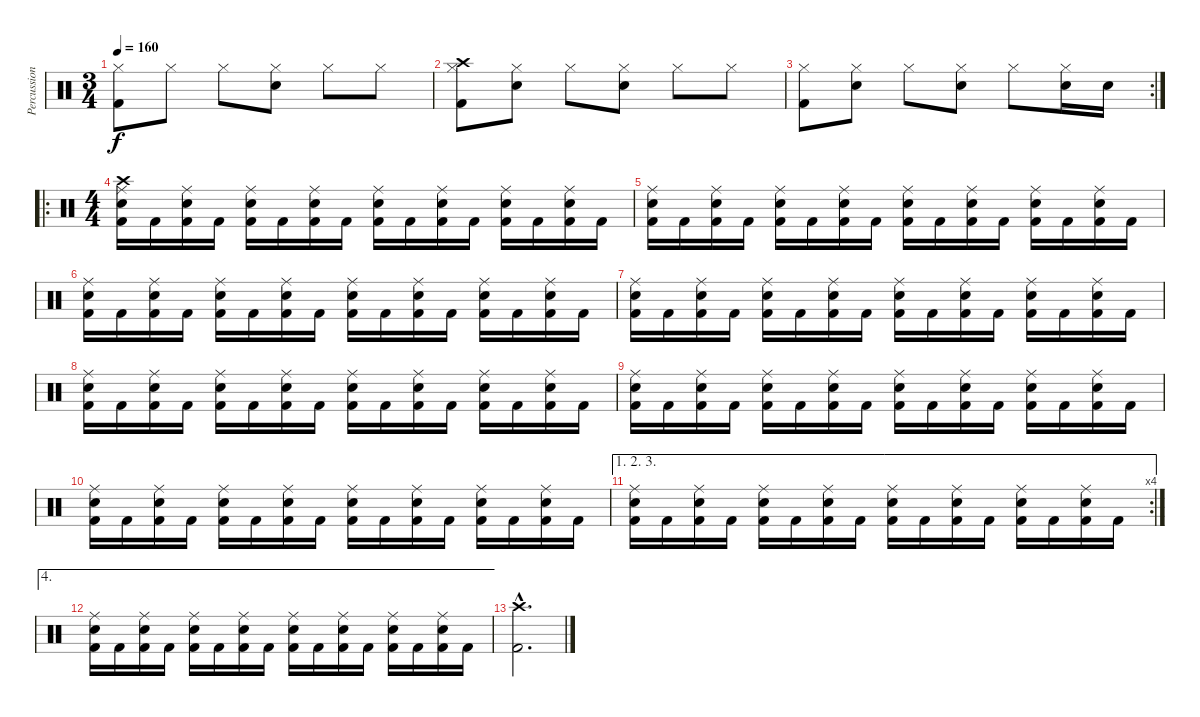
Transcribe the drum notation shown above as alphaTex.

\track ("Percussion" "Percussion") {instrument percussion}
\staff {score}
\articulation defaults
\ts (3 4)
\tempo 160
\clef neutral
\ks c
("Hi-Hat (closed)" "Kick (hit) 2").8{dy f} "Hi-Hat (closed)".8 "Hi-Hat (closed)".8 ("Hi-Hat (closed)" "Snare (hit) 2").8 "Hi-Hat (closed)".8 "Hi-Hat (closed)".8 |
("Hi-Hat (closed)" "Kick (hit) 2" "Crash high (hit)").8 ("Hi-Hat (closed)" "Snare (hit) 2").8 "Hi-Hat (closed)".8 ("Hi-Hat (closed)" "Snare (hit) 2").8 "Hi-Hat (closed)".8 "Hi-Hat (closed)".8 |
\rc 2
("Hi-Hat (closed)" "Kick (hit) 2").8 ("Hi-Hat (closed)" "Snare (hit) 2").8 "Hi-Hat (closed)".8 ("Hi-Hat (closed)" "Snare (hit) 2").8 "Hi-Hat (closed)".8 ("Hi-Hat (closed)" "Snare (hit) 2").16 "Snare (hit) 2".16 |
\ro
\ts (4 4)
("Kick (hit) 2" "Snare (hit) 2" "Ride (middle)" "Crash high (hit)").16 "Kick (hit) 2".16 ("Kick (hit) 2" "Snare (hit) 2" "Ride (middle)").16 "Kick (hit) 2".16 ("Kick (hit) 2" "Snare (hit) 2" "Ride (middle)").16 "Kick (hit) 2".16 ("Kick (hit) 2" "Snare (hit) 2" "Ride (middle)").16 "Kick (hit) 2".16 ("Kick (hit) 2" "Snare (hit) 2" "Ride (middle)").16 "Kick (hit) 2".16 ("Kick (hit) 2" "Snare (hit) 2" "Ride (middle)").16 "Kick (hit) 2".16 ("Kick (hit) 2" "Snare (hit) 2" "Ride (middle)").16 "Kick (hit) 2".16 ("Kick (hit) 2" "Snare (hit) 2" "Ride (middle)").16 "Kick (hit) 2".16 |
("Kick (hit) 2" "Snare (hit) 2" "Ride (middle)").16 "Kick (hit) 2".16 ("Kick (hit) 2" "Snare (hit) 2" "Ride (middle)").16 "Kick (hit) 2".16 ("Kick (hit) 2" "Snare (hit) 2" "Ride (middle)").16 "Kick (hit) 2".16 ("Kick (hit) 2" "Snare (hit) 2" "Ride (middle)").16 "Kick (hit) 2".16 ("Kick (hit) 2" "Snare (hit) 2" "Ride (middle)").16 "Kick (hit) 2".16 ("Kick (hit) 2" "Snare (hit) 2" "Ride (middle)").16 "Kick (hit) 2".16 ("Kick (hit) 2" "Snare (hit) 2" "Ride (middle)").16 "Kick (hit) 2".16 ("Kick (hit) 2" "Snare (hit) 2" "Ride (middle)").16 "Kick (hit) 2".16 |
("Kick (hit) 2" "Snare (hit) 2" "Ride (middle)").16 "Kick (hit) 2".16 ("Kick (hit) 2" "Snare (hit) 2" "Ride (middle)").16 "Kick (hit) 2".16 ("Kick (hit) 2" "Snare (hit) 2" "Ride (middle)").16 "Kick (hit) 2".16 ("Kick (hit) 2" "Snare (hit) 2" "Ride (middle)").16 "Kick (hit) 2".16 ("Kick (hit) 2" "Snare (hit) 2" "Ride (middle)").16 "Kick (hit) 2".16 ("Kick (hit) 2" "Snare (hit) 2" "Ride (middle)").16 "Kick (hit) 2".16 ("Kick (hit) 2" "Snare (hit) 2" "Ride (middle)").16 "Kick (hit) 2".16 ("Kick (hit) 2" "Snare (hit) 2" "Ride (middle)").16 "Kick (hit) 2".16 |
("Kick (hit) 2" "Snare (hit) 2" "Ride (middle)").16 "Kick (hit) 2".16 ("Kick (hit) 2" "Snare (hit) 2" "Ride (middle)").16 "Kick (hit) 2".16 ("Kick (hit) 2" "Snare (hit) 2" "Ride (middle)").16 "Kick (hit) 2".16 ("Kick (hit) 2" "Snare (hit) 2" "Ride (middle)").16 "Kick (hit) 2".16 ("Kick (hit) 2" "Snare (hit) 2" "Ride (middle)").16 "Kick (hit) 2".16 ("Kick (hit) 2" "Snare (hit) 2" "Ride (middle)").16 "Kick (hit) 2".16 ("Kick (hit) 2" "Snare (hit) 2" "Ride (middle)").16 "Kick (hit) 2".16 ("Kick (hit) 2" "Snare (hit) 2" "Ride (middle)").16 "Kick (hit) 2".16 |
("Kick (hit) 2" "Snare (hit) 2" "Ride (middle)").16 "Kick (hit) 2".16 ("Kick (hit) 2" "Snare (hit) 2" "Ride (middle)").16 "Kick (hit) 2".16 ("Kick (hit) 2" "Snare (hit) 2" "Ride (middle)").16 "Kick (hit) 2".16 ("Kick (hit) 2" "Snare (hit) 2" "Ride (middle)").16 "Kick (hit) 2".16 ("Kick (hit) 2" "Snare (hit) 2" "Ride (middle)").16 "Kick (hit) 2".16 ("Kick (hit) 2" "Snare (hit) 2" "Ride (middle)").16 "Kick (hit) 2".16 ("Kick (hit) 2" "Snare (hit) 2" "Ride (middle)").16 "Kick (hit) 2".16 ("Kick (hit) 2" "Snare (hit) 2" "Ride (middle)").16 "Kick (hit) 2".16 |
("Kick (hit) 2" "Snare (hit) 2" "Ride (middle)").16 "Kick (hit) 2".16 ("Kick (hit) 2" "Snare (hit) 2" "Ride (middle)").16 "Kick (hit) 2".16 ("Kick (hit) 2" "Snare (hit) 2" "Ride (middle)").16 "Kick (hit) 2".16 ("Kick (hit) 2" "Snare (hit) 2" "Ride (middle)").16 "Kick (hit) 2".16 ("Kick (hit) 2" "Snare (hit) 2" "Ride (middle)").16 "Kick (hit) 2".16 ("Kick (hit) 2" "Snare (hit) 2" "Ride (middle)").16 "Kick (hit) 2".16 ("Kick (hit) 2" "Snare (hit) 2" "Ride (middle)").16 "Kick (hit) 2".16 ("Kick (hit) 2" "Snare (hit) 2" "Ride (middle)").16 "Kick (hit) 2".16 |
("Kick (hit) 2" "Snare (hit) 2" "Ride (middle)").16 "Kick (hit) 2".16 ("Kick (hit) 2" "Snare (hit) 2" "Ride (middle)").16 "Kick (hit) 2".16 ("Kick (hit) 2" "Snare (hit) 2" "Ride (middle)").16 "Kick (hit) 2".16 ("Kick (hit) 2" "Snare (hit) 2" "Ride (middle)").16 "Kick (hit) 2".16 ("Kick (hit) 2" "Snare (hit) 2" "Ride (middle)").16 "Kick (hit) 2".16 ("Kick (hit) 2" "Snare (hit) 2" "Ride (middle)").16 "Kick (hit) 2".16 ("Kick (hit) 2" "Snare (hit) 2" "Ride (middle)").16 "Kick (hit) 2".16 ("Kick (hit) 2" "Snare (hit) 2" "Ride (middle)").16 "Kick (hit) 2".16 |
\ae (1 2 3)
\rc 4
("Kick (hit) 2" "Snare (hit) 2" "Ride (middle)").16 "Kick (hit) 2".16 ("Kick (hit) 2" "Snare (hit) 2" "Ride (middle)").16 "Kick (hit) 2".16 ("Kick (hit) 2" "Snare (hit) 2" "Ride (middle)").16 "Kick (hit) 2".16 ("Kick (hit) 2" "Snare (hit) 2" "Ride (middle)").16 "Kick (hit) 2".16 ("Kick (hit) 2" "Snare (hit) 2" "Ride (middle)").16 "Kick (hit) 2".16 ("Kick (hit) 2" "Snare (hit) 2" "Ride (middle)").16 "Kick (hit) 2".16 ("Kick (hit) 2" "Snare (hit) 2" "Ride (middle)").16 "Kick (hit) 2".16 ("Kick (hit) 2" "Snare (hit) 2" "Ride (middle)").16 "Kick (hit) 2".16 |
\ae 4
("Kick (hit) 2" "Snare (hit) 2" "Ride (middle)").16 "Kick (hit) 2".16 ("Kick (hit) 2" "Snare (hit) 2" "Ride (middle)").16 "Kick (hit) 2".16 ("Kick (hit) 2" "Snare (hit) 2" "Ride (middle)").16 "Kick (hit) 2".16 ("Kick (hit) 2" "Snare (hit) 2" "Ride (middle)").16 "Kick (hit) 2".16 ("Kick (hit) 2" "Snare (hit) 2" "Ride (middle)").16 "Kick (hit) 2".16 ("Kick (hit) 2" "Snare (hit) 2" "Ride (middle)").16 "Kick (hit) 2".16 ("Kick (hit) 2" "Snare (hit) 2" "Ride (middle)").16 "Kick (hit) 2".16 ("Kick (hit) 2" "Snare (hit) 2" "Ride (middle)").16 "Kick (hit) 2".16 |
("Kick (hit) 2"{hac} "Crash high (hit)"{hac}).2{d}
